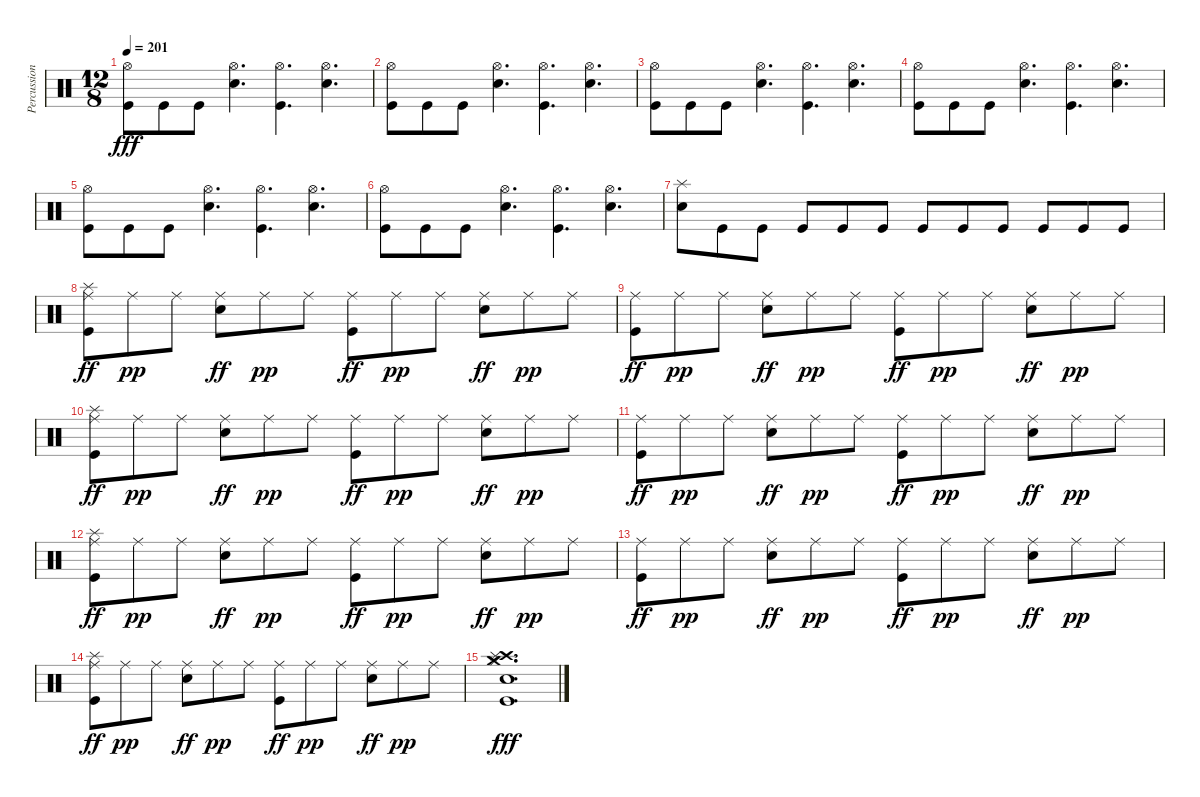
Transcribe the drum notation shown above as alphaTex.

\track ("Percussion" "Percussion") {instrument percussion}
\staff {score}
\articulation defaults
\ts (12 8)
\tempo 201
\clef neutral
\ks c
("Hi-Hat (open)" "Kick (hit)").8{dy fff} "Kick (hit)".8 "Kick (hit)".8 ("Hi-Hat (open)" "Snare (hit) 2").4{d} ("Hi-Hat (open)" "Kick (hit)").4{d} ("Hi-Hat (open)" "Snare (hit) 2").4{d} |
("Hi-Hat (open)" "Kick (hit)").8 "Kick (hit)".8 "Kick (hit)".8 ("Hi-Hat (open)" "Snare (hit) 2").4{d} ("Hi-Hat (open)" "Kick (hit)").4{d} ("Hi-Hat (open)" "Snare (hit) 2").4{d} |
("Hi-Hat (open)" "Kick (hit)").8 "Kick (hit)".8 "Kick (hit)".8 ("Hi-Hat (open)" "Snare (hit) 2").4{d} ("Hi-Hat (open)" "Kick (hit)").4{d} ("Hi-Hat (open)" "Snare (hit) 2").4{d} |
("Hi-Hat (open)" "Kick (hit)").8 "Kick (hit)".8 "Kick (hit)".8 ("Hi-Hat (open)" "Snare (hit) 2").4{d} ("Hi-Hat (open)" "Kick (hit)").4{d} ("Hi-Hat (open)" "Snare (hit) 2").4{d} |
("Hi-Hat (open)" "Kick (hit)").8 "Kick (hit)".8 "Kick (hit)".8 ("Hi-Hat (open)" "Snare (hit) 2").4{d} ("Hi-Hat (open)" "Kick (hit)").4{d} ("Hi-Hat (open)" "Snare (hit) 2").4{d} |
("Hi-Hat (open)" "Kick (hit)").8 "Kick (hit)".8 "Kick (hit)".8 ("Hi-Hat (open)" "Snare (hit) 2").4{d} ("Hi-Hat (open)" "Kick (hit)").4{d} ("Hi-Hat (open)" "Snare (hit) 2").4{d} |
("Splash (hit)" "Snare (hit) 2").8 "Kick (hit)".8 "Kick (hit)".8 "Kick (hit)".8 "Kick (hit)".8 "Kick (hit)".8 "Kick (hit)".8 "Kick (hit)".8 "Kick (hit)".8 "Kick (hit)".8 "Kick (hit)".8 "Kick (hit)".8 |
("Splash (hit)" "Ride (middle)" "Kick (hit)").8{dy ff} "Ride (middle)".8{dy pp} "Ride (middle)".8 ("Ride (middle)" "Snare (hit) 2").8{dy ff} "Ride (middle)".8{dy pp} "Ride (middle)".8 ("Ride (middle)" "Kick (hit)").8{dy ff} "Ride (middle)".8{dy pp} "Ride (middle)".8 ("Ride (middle)" "Snare (hit) 2").8{dy ff} "Ride (middle)".8{dy pp} "Ride (middle)".8 |
("Ride (middle)" "Kick (hit)").8{dy ff} "Ride (middle)".8{dy pp} "Ride (middle)".8 ("Ride (middle)" "Snare (hit) 2").8{dy ff} "Ride (middle)".8{dy pp} "Ride (middle)".8 ("Ride (middle)" "Kick (hit)").8{dy ff} "Ride (middle)".8{dy pp} "Ride (middle)".8 ("Ride (middle)" "Snare (hit) 2").8{dy ff} "Ride (middle)".8{dy pp} "Ride (middle)".8 |
("Splash (hit)" "Ride (middle)" "Kick (hit)").8{dy ff} "Ride (middle)".8{dy pp} "Ride (middle)".8 ("Ride (middle)" "Snare (hit) 2").8{dy ff} "Ride (middle)".8{dy pp} "Ride (middle)".8 ("Ride (middle)" "Kick (hit)").8{dy ff} "Ride (middle)".8{dy pp} "Ride (middle)".8 ("Ride (middle)" "Snare (hit) 2").8{dy ff} "Ride (middle)".8{dy pp} "Ride (middle)".8 |
("Ride (middle)" "Kick (hit)").8{dy ff} "Ride (middle)".8{dy pp} "Ride (middle)".8 ("Ride (middle)" "Snare (hit) 2").8{dy ff} "Ride (middle)".8{dy pp} "Ride (middle)".8 ("Ride (middle)" "Kick (hit)").8{dy ff} "Ride (middle)".8{dy pp} "Ride (middle)".8 ("Ride (middle)" "Snare (hit) 2").8{dy ff} "Ride (middle)".8{dy pp} "Ride (middle)".8 |
("Splash (hit)" "Ride (middle)" "Kick (hit)").8{dy ff} "Ride (middle)".8{dy pp} "Ride (middle)".8 ("Ride (middle)" "Snare (hit) 2").8{dy ff} "Ride (middle)".8{dy pp} "Ride (middle)".8 ("Ride (middle)" "Kick (hit)").8{dy ff} "Ride (middle)".8{dy pp} "Ride (middle)".8 ("Ride (middle)" "Snare (hit) 2").8{dy ff} "Ride (middle)".8{dy pp} "Ride (middle)".8 |
("Ride (middle)" "Kick (hit)").8{dy ff} "Ride (middle)".8{dy pp} "Ride (middle)".8 ("Ride (middle)" "Snare (hit) 2").8{dy ff} "Ride (middle)".8{dy pp} "Ride (middle)".8 ("Ride (middle)" "Kick (hit)").8{dy ff} "Ride (middle)".8{dy pp} "Ride (middle)".8 ("Ride (middle)" "Snare (hit) 2").8{dy ff} "Ride (middle)".8{dy pp} "Ride (middle)".8 |
("Splash (hit)" "Ride (middle)" "Kick (hit)").8{dy ff} "Ride (middle)".8{dy pp} "Ride (middle)".8 ("Ride (middle)" "Snare (hit) 2").8{dy ff} "Ride (middle)".8{dy pp} "Ride (middle)".8 ("Ride (middle)" "Kick (hit)").8{dy ff} "Ride (middle)".8{dy pp} "Ride (middle)".8 ("Ride (middle)" "Snare (hit) 2").8{dy ff} "Ride (middle)".8{dy pp} "Ride (middle)".8 |
("Crash medium (hit)" "Crash high (hit)" "Hi-Hat (closed)" "Splash (hit)" "Snare (hit) 2" "Kick (hit)").1{d dy fff}
